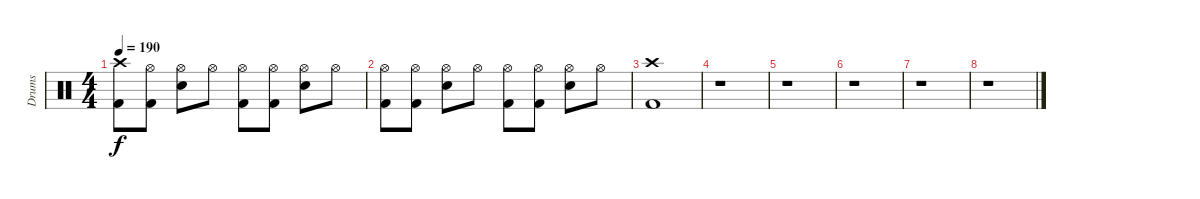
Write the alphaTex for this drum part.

\track ("Drums" "Drums") {instrument percussion}
\staff {score}
\articulation defaults
\ts (4 4)
\tempo 190
\clef neutral
\ks c
("Crash high (hit)" "Kick (hit) 2").8{dy f} ("Hi-Hat (open)" "Kick (hit) 2").8 ("Hi-Hat (open)" "Electric Snare (hit)").8 "Hi-Hat (open)".8 ("Hi-Hat (open)" "Kick (hit) 2").8 ("Hi-Hat (open)" "Kick (hit) 2").8 ("Hi-Hat (open)" "Electric Snare (hit)").8 "Hi-Hat (open)".8 |
("Hi-Hat (open)" "Kick (hit) 2").8 ("Hi-Hat (open)" "Kick (hit) 2").8 ("Hi-Hat (open)" "Electric Snare (hit)").8 "Hi-Hat (open)".8 ("Hi-Hat (open)" "Kick (hit) 2").8 ("Hi-Hat (open)" "Kick (hit) 2").8 ("Hi-Hat (open)" "Electric Snare (hit)").8 "Hi-Hat (open)".8 |
("Crash high (hit)" "Kick (hit) 2").1 |
r.1 |
r.1 |
r.1 |
r.1 |
r.1
